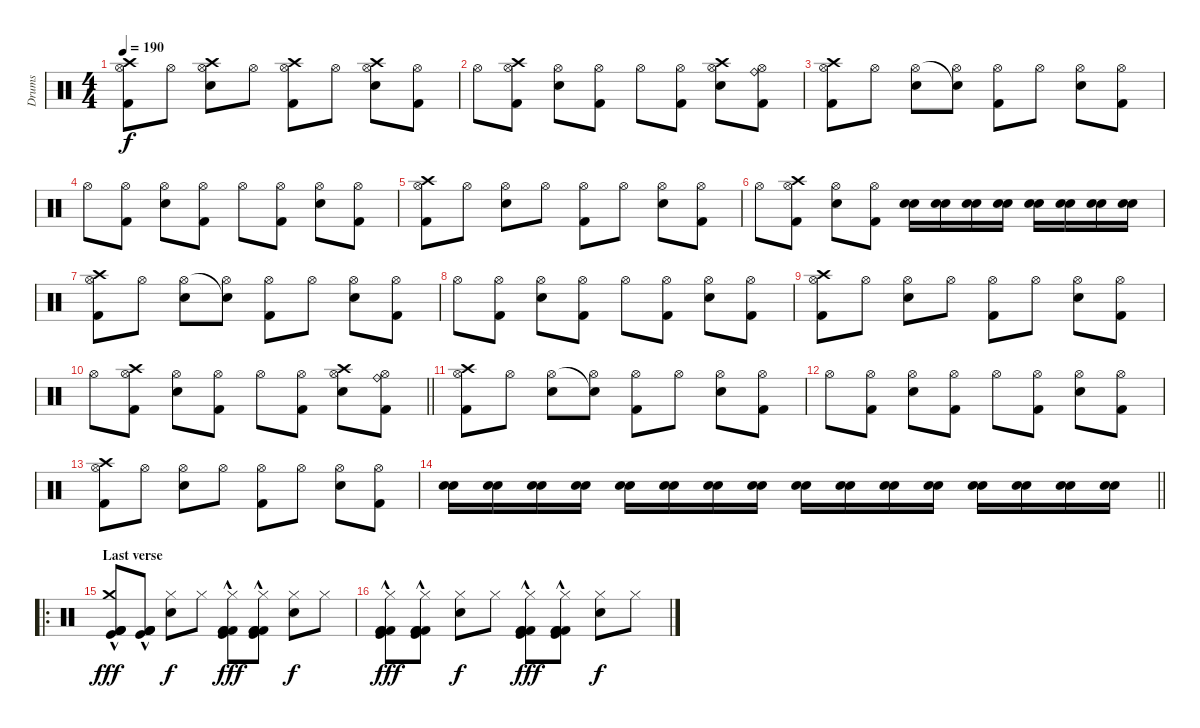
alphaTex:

\track ("Drums" "Drums") {instrument percussion}
\staff {score}
\articulation defaults
\ts (4 4)
\tempo 190
\clef neutral
\ks c
("Crash high (hit)" "Hi-Hat (open)" "Kick (hit) 2").8{dy f} "Hi-Hat (open)".8 ("Crash high (hit)" "Hi-Hat (open)" "Electric Snare (hit)").8 "Hi-Hat (open)".8 ("Crash high (hit)" "Hi-Hat (open)" "Kick (hit) 2").8 "Hi-Hat (open)".8 ("Crash high (hit)" "Hi-Hat (open)" "Electric Snare (hit)").8 ("Hi-Hat (open)" "Kick (hit) 2").8 |
"Hi-Hat (open)".8 ("Crash high (hit)" "Hi-Hat (open)" "Kick (hit) 2").8 ("Hi-Hat (open)" "Electric Snare (hit)").8 ("Hi-Hat (open)" "Kick (hit) 2").8 "Hi-Hat (open)".8 ("Hi-Hat (open)" "Kick (hit) 2").8 ("Crash high (hit)" "Hi-Hat (open)" "Electric Snare (hit)").8 ("Ride (bell)" "Hi-Hat (open)" "Kick (hit) 2").8 |
("Crash high (hit)" "Hi-Hat (open)" "Kick (hit) 2").8 "Hi-Hat (open)".8 ("Hi-Hat (open)" "Electric Snare (hit)").8 ("Snare (hit)"{t} "Hi-Hat (open)").8 ("Hi-Hat (open)" "Kick (hit) 2").8 "Hi-Hat (open)".8 ("Hi-Hat (open)" "Electric Snare (hit)").8 ("Hi-Hat (open)" "Kick (hit) 2").8 |
"Hi-Hat (open)".8 ("Hi-Hat (open)" "Kick (hit) 2").8 ("Hi-Hat (open)" "Electric Snare (hit)").8 ("Hi-Hat (open)" "Kick (hit) 2").8 "Hi-Hat (open)".8 ("Hi-Hat (open)" "Kick (hit) 2").8 ("Hi-Hat (open)" "Electric Snare (hit)").8 ("Hi-Hat (open)" "Kick (hit) 2").8 |
("Crash high (hit)" "Hi-Hat (open)" "Kick (hit) 2").8 "Hi-Hat (open)".8 ("Hi-Hat (open)" "Electric Snare (hit)").8 "Hi-Hat (open)".8 ("Hi-Hat (open)" "Kick (hit) 2").8 "Hi-Hat (open)".8 ("Hi-Hat (open)" "Electric Snare (hit)").8 ("Hi-Hat (open)" "Kick (hit) 2").8 |
"Hi-Hat (open)".8 ("Crash high (hit)" "Hi-Hat (open)" "Kick (hit) 2").8 ("Hi-Hat (open)" "Electric Snare (hit)").8 ("Hi-Hat (open)" "Kick (hit) 2").8 ("Snare (hit) 2" "Electric Snare (hit)").16 ("Snare (hit) 2" "Electric Snare (hit)").16 ("Snare (hit) 2" "Electric Snare (hit)").16 ("Snare (hit) 2" "Electric Snare (hit)").16 ("Snare (hit) 2" "Electric Snare (hit)").16 ("Snare (hit) 2" "Electric Snare (hit)").16 ("Snare (hit) 2" "Electric Snare (hit)").16 ("Snare (hit) 2" "Electric Snare (hit)").16 |
("Crash high (hit)" "Hi-Hat (open)" "Kick (hit) 2").8 "Hi-Hat (open)".8 ("Hi-Hat (open)" "Electric Snare (hit)").8 ("Snare (hit)"{t} "Hi-Hat (open)").8 ("Hi-Hat (open)" "Kick (hit) 2").8 "Hi-Hat (open)".8 ("Hi-Hat (open)" "Electric Snare (hit)").8 ("Hi-Hat (open)" "Kick (hit) 2").8 |
"Hi-Hat (open)".8 ("Hi-Hat (open)" "Kick (hit) 2").8 ("Hi-Hat (open)" "Electric Snare (hit)").8 ("Hi-Hat (open)" "Kick (hit) 2").8 "Hi-Hat (open)".8 ("Hi-Hat (open)" "Kick (hit) 2").8 ("Hi-Hat (open)" "Electric Snare (hit)").8 ("Hi-Hat (open)" "Kick (hit) 2").8 |
("Crash high (hit)" "Hi-Hat (open)" "Kick (hit) 2").8 "Hi-Hat (open)".8 ("Hi-Hat (open)" "Electric Snare (hit)").8 "Hi-Hat (open)".8 ("Hi-Hat (open)" "Kick (hit) 2").8 "Hi-Hat (open)".8 ("Hi-Hat (open)" "Electric Snare (hit)").8 ("Hi-Hat (open)" "Kick (hit) 2").8 |
\barLineRight lightlight "Hi-Hat (open)".8
("Crash high (hit)" "Hi-Hat (open)" "Kick (hit) 2").8 ("Hi-Hat (open)" "Electric Snare (hit)").8 ("Hi-Hat (open)" "Kick (hit) 2").8 "Hi-Hat (open)".8 ("Hi-Hat (open)" "Kick (hit) 2").8 ("Crash high (hit)" "Hi-Hat (open)" "Electric Snare (hit)").8 ("Ride (bell)" "Hi-Hat (open)" "Kick (hit) 2").8 |
("Crash high (hit)" "Hi-Hat (open)" "Kick (hit) 2").8 "Hi-Hat (open)".8 ("Hi-Hat (open)" "Electric Snare (hit)").8 ("Snare (hit)"{t} "Hi-Hat (open)").8 ("Hi-Hat (open)" "Kick (hit) 2").8 "Hi-Hat (open)".8 ("Hi-Hat (open)" "Electric Snare (hit)").8 ("Hi-Hat (open)" "Kick (hit) 2").8 |
"Hi-Hat (open)".8 ("Hi-Hat (open)" "Kick (hit) 2").8 ("Hi-Hat (open)" "Electric Snare (hit)").8 ("Hi-Hat (open)" "Kick (hit) 2").8 "Hi-Hat (open)".8 ("Hi-Hat (open)" "Kick (hit) 2").8 ("Hi-Hat (open)" "Electric Snare (hit)").8 ("Hi-Hat (open)" "Kick (hit) 2").8 |
("Crash high (hit)" "Hi-Hat (open)" "Kick (hit) 2").8 "Hi-Hat (open)".8 ("Hi-Hat (open)" "Electric Snare (hit)").8 "Hi-Hat (open)".8 ("Hi-Hat (open)" "Kick (hit) 2").8 "Hi-Hat (open)".8 ("Hi-Hat (open)" "Electric Snare (hit)").8 ("Hi-Hat (open)" "Kick (hit) 2").8 |
\barLineRight lightlight
("Snare (hit) 2" "Electric Snare (hit)").16 ("Snare (hit) 2" "Electric Snare (hit)").16 ("Snare (hit) 2" "Electric Snare (hit)").16 ("Snare (hit) 2" "Electric Snare (hit)").16 ("Snare (hit) 2" "Electric Snare (hit)").16 ("Snare (hit) 2" "Electric Snare (hit)").16 ("Snare (hit) 2" "Electric Snare (hit)").16 ("Snare (hit) 2" "Electric Snare (hit)").16 ("Snare (hit) 2" "Electric Snare (hit)").16 ("Snare (hit) 2" "Electric Snare (hit)").16 ("Snare (hit) 2" "Electric Snare (hit)").16 ("Snare (hit) 2" "Electric Snare (hit)").16 ("Snare (hit) 2" "Electric Snare (hit)").16 ("Snare (hit) 2" "Electric Snare (hit)").16 ("Snare (hit) 2" "Electric Snare (hit)").16 ("Snare (hit) 2" "Electric Snare (hit)").16 |
\ro
\section ("" "Last verse")
("Kick (hit) 2" "Kick (hit) 2" "Crash medium (hit)" "Kick (hit) 2"{hac} "Kick (hit)"{hac}).8{dy fff} ("Kick (hit) 2" "Kick (hit) 2" "Kick (hit) 2"{hac} "Kick (hit)"{hac}).8 ("Hi-Hat (closed)" "Electric Snare (hit)").8{dy f} "Hi-Hat (closed)".8 ("Kick (hit) 2" "Kick (hit) 2" "Hi-Hat (closed)" "Kick (hit)"{hac} "Kick (hit) 2"{hac}).8{dy fff} ("Kick (hit) 2" "Kick (hit) 2" "Hi-Hat (closed)" "Kick (hit)"{hac} "Kick (hit) 2"{hac}).8 ("Hi-Hat (closed)" "Electric Snare (hit)").8{dy f} "Hi-Hat (closed)".8 |
("Kick (hit) 2" "Kick (hit) 2" "Hi-Hat (closed)" "Kick (hit)"{hac} "Kick (hit) 2"{hac}).8{dy fff} ("Kick (hit) 2" "Kick (hit) 2" "Hi-Hat (closed)" "Kick (hit)"{hac} "Kick (hit) 2"{hac}).8 ("Hi-Hat (closed)" "Electric Snare (hit)").8{dy f} "Hi-Hat (closed)".8 ("Kick (hit) 2" "Kick (hit) 2" "Hi-Hat (closed)" "Kick (hit)"{hac} "Kick (hit) 2"{hac}).8{dy fff} ("Kick (hit) 2" "Kick (hit) 2" "Hi-Hat (closed)" "Kick (hit)"{hac} "Kick (hit) 2"{hac}).8 ("Hi-Hat (closed)" "Electric Snare (hit)").8{dy f} "Hi-Hat (closed)".8
